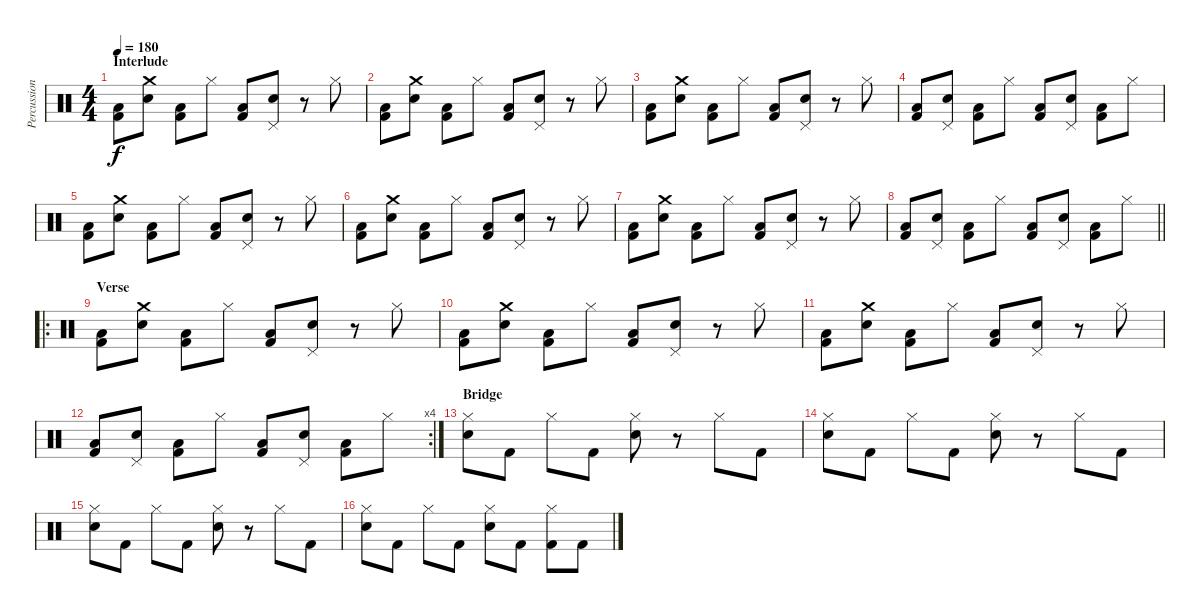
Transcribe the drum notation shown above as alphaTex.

\track ("Percussion" "Percussion") {instrument percussion}
\staff {score}
\articulation defaults
\ts (4 4)
\section ("" "Interlude")
\tempo 180
\clef neutral
\ks c
("Low Floor Tom (hit)" "Kick (hit) 2").8{dy f} ("Crash medium (hit)" "Electric Snare (hit)").8 ("Low Floor Tom (hit)" "Kick (hit) 2").8 "Hi-Hat (closed)".8 ("Low Floor Tom (hit)" "Kick (hit) 2").8 ("Pedal Hi-Hat (hit)" "Electric Snare (hit)").8 r.8 "Hi-Hat (closed)".8 |
("Low Floor Tom (hit)" "Kick (hit) 2").8 ("Crash medium (hit)" "Electric Snare (hit)").8 ("Low Floor Tom (hit)" "Kick (hit) 2").8 "Hi-Hat (closed)".8 ("Low Floor Tom (hit)" "Kick (hit) 2").8 ("Pedal Hi-Hat (hit)" "Electric Snare (hit)").8 r.8 "Hi-Hat (closed)".8 |
("Low Floor Tom (hit)" "Kick (hit) 2").8 ("Crash medium (hit)" "Electric Snare (hit)").8 ("Low Floor Tom (hit)" "Kick (hit) 2").8 "Hi-Hat (closed)".8 ("Low Floor Tom (hit)" "Kick (hit) 2").8 ("Pedal Hi-Hat (hit)" "Electric Snare (hit)").8 r.8 "Hi-Hat (closed)".8 |
("Low Floor Tom (hit)" "Kick (hit) 2").8 ("Pedal Hi-Hat (hit)" "Electric Snare (hit)").8 ("Low Floor Tom (hit)" "Kick (hit) 2").8 "Hi-Hat (closed)".8 ("Low Floor Tom (hit)" "Kick (hit) 2").8 ("Pedal Hi-Hat (hit)" "Electric Snare (hit)").8 ("Low Floor Tom (hit)" "Kick (hit) 2").8 "Hi-Hat (closed)".8 |
("Low Floor Tom (hit)" "Kick (hit) 2").8 ("Crash medium (hit)" "Electric Snare (hit)").8 ("Low Floor Tom (hit)" "Kick (hit) 2").8 "Hi-Hat (closed)".8 ("Low Floor Tom (hit)" "Kick (hit) 2").8 ("Pedal Hi-Hat (hit)" "Electric Snare (hit)").8 r.8 "Hi-Hat (closed)".8 |
("Low Floor Tom (hit)" "Kick (hit) 2").8 ("Crash medium (hit)" "Electric Snare (hit)").8 ("Low Floor Tom (hit)" "Kick (hit) 2").8 "Hi-Hat (closed)".8 ("Low Floor Tom (hit)" "Kick (hit) 2").8 ("Pedal Hi-Hat (hit)" "Electric Snare (hit)").8 r.8 "Hi-Hat (closed)".8 |
("Low Floor Tom (hit)" "Kick (hit) 2").8 ("Crash medium (hit)" "Electric Snare (hit)").8 ("Low Floor Tom (hit)" "Kick (hit) 2").8 "Hi-Hat (closed)".8 ("Low Floor Tom (hit)" "Kick (hit) 2").8 ("Pedal Hi-Hat (hit)" "Electric Snare (hit)").8 r.8 "Hi-Hat (closed)".8 |
\barLineRight lightlight
("Low Floor Tom (hit)" "Kick (hit) 2").8 ("Pedal Hi-Hat (hit)" "Electric Snare (hit)").8 ("Low Floor Tom (hit)" "Kick (hit) 2").8 "Hi-Hat (closed)".8 ("Low Floor Tom (hit)" "Kick (hit) 2").8 ("Pedal Hi-Hat (hit)" "Electric Snare (hit)").8 ("Low Floor Tom (hit)" "Kick (hit) 2").8 "Hi-Hat (closed)".8 |
\ro
\section ("" "Verse")
("Low Floor Tom (hit)" "Kick (hit) 2").8 ("Crash medium (hit)" "Electric Snare (hit)").8 ("Low Floor Tom (hit)" "Kick (hit) 2").8 "Hi-Hat (closed)".8 ("Low Floor Tom (hit)" "Kick (hit) 2").8 ("Pedal Hi-Hat (hit)" "Electric Snare (hit)").8 r.8 "Hi-Hat (closed)".8 |
("Low Floor Tom (hit)" "Kick (hit) 2").8 ("Crash medium (hit)" "Electric Snare (hit)").8 ("Low Floor Tom (hit)" "Kick (hit) 2").8 "Hi-Hat (closed)".8 ("Low Floor Tom (hit)" "Kick (hit) 2").8 ("Pedal Hi-Hat (hit)" "Electric Snare (hit)").8 r.8 "Hi-Hat (closed)".8 |
("Low Floor Tom (hit)" "Kick (hit) 2").8 ("Crash medium (hit)" "Electric Snare (hit)").8 ("Low Floor Tom (hit)" "Kick (hit) 2").8 "Hi-Hat (closed)".8 ("Low Floor Tom (hit)" "Kick (hit) 2").8 ("Pedal Hi-Hat (hit)" "Electric Snare (hit)").8 r.8 "Hi-Hat (closed)".8 |
\rc 4
("Low Floor Tom (hit)" "Kick (hit) 2").8 ("Pedal Hi-Hat (hit)" "Electric Snare (hit)").8 ("Low Floor Tom (hit)" "Kick (hit) 2").8 "Hi-Hat (closed)".8 ("Low Floor Tom (hit)" "Kick (hit) 2").8 ("Pedal Hi-Hat (hit)" "Electric Snare (hit)").8 ("Low Floor Tom (hit)" "Kick (hit) 2").8 "Hi-Hat (closed)".8 |
\section ("" "Bridge")
("Hi-Hat (closed)" "Electric Snare (hit)").8 "Kick (hit) 2".8 "Hi-Hat (closed)".8 "Kick (hit) 2".8 ("Hi-Hat (closed)" "Electric Snare (hit)").8 r.8 "Hi-Hat (closed)".8 "Kick (hit) 2".8 |
("Hi-Hat (closed)" "Electric Snare (hit)").8 "Kick (hit) 2".8 "Hi-Hat (closed)".8 "Kick (hit) 2".8 ("Hi-Hat (closed)" "Electric Snare (hit)").8 r.8 "Hi-Hat (closed)".8 "Kick (hit) 2".8 |
("Hi-Hat (closed)" "Electric Snare (hit)").8 "Kick (hit) 2".8 "Hi-Hat (closed)".8 "Kick (hit) 2".8 ("Hi-Hat (closed)" "Electric Snare (hit)").8 r.8 "Hi-Hat (closed)".8 "Kick (hit) 2".8 |
("Hi-Hat (closed)" "Electric Snare (hit)").8 "Kick (hit) 2".8 "Hi-Hat (closed)".8 "Kick (hit) 2".8 ("Hi-Hat (closed)" "Electric Snare (hit)").8 "Kick (hit) 2".8 ("Hi-Hat (closed)" "Kick (hit) 2").8 "Kick (hit) 2".8
